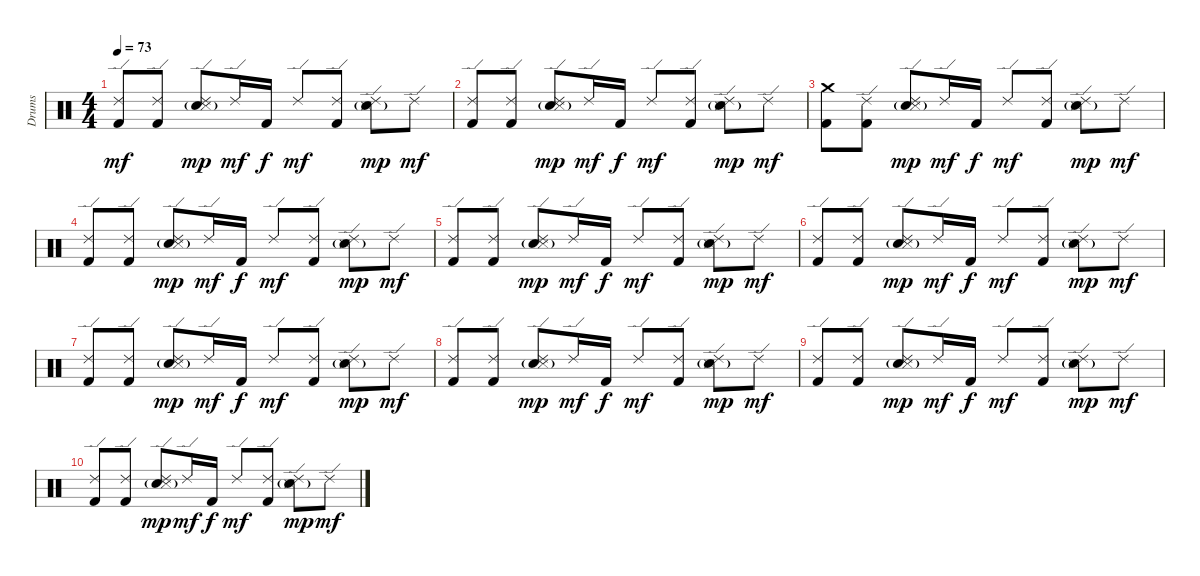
\track ("Drums" "Drums") {instrument percussion}
\staff {score}
\articulation defaults
\ts (4 4)
\tempo 73
\clef neutral
\ks c
("Ride (edge) 2" "Kick (hit) 2").8{dy mf} ("Ride (edge) 2" "Kick (hit) 2").8 ("Ride (edge) 2" "Snare (hit) 2"{g} "Snare (side stick) 3").8{dy mp} "Ride (edge) 2".16{dy mf} "Kick (hit) 2".16{dy f} "Ride (edge) 2".8{dy mf} ("Ride (edge) 2" "Kick (hit) 2").8 ("Ride (edge) 2" "Snare (hit) 2"{g} "Snare (side stick) 3").8{dy mp} "Ride (edge) 2".8{dy mf} |
("Ride (edge) 2" "Kick (hit) 2").8 ("Ride (edge) 2" "Kick (hit) 2").8 ("Ride (edge) 2" "Snare (hit) 2"{g} "Snare (side stick) 3").8{dy mp} "Ride (edge) 2".16{dy mf} "Kick (hit) 2".16{dy f} "Ride (edge) 2".8{dy mf} ("Ride (edge) 2" "Kick (hit) 2").8 ("Ride (edge) 2" "Snare (hit) 2"{g} "Snare (side stick) 3").8{dy mp} "Ride (edge) 2".8{dy mf} |
("Crash medium (hit)" "Kick (hit) 2").8{volume 5} ("Ride (edge) 2" "Kick (hit) 2").8 ("Ride (edge) 2" "Snare (hit) 2"{g} "Snare (side stick) 3").8{dy mp} "Ride (edge) 2".16{dy mf} "Kick (hit) 2".16{dy f} "Ride (edge) 2".8{dy mf} ("Ride (edge) 2" "Kick (hit) 2").8 ("Ride (edge) 2" "Snare (hit) 2"{g} "Snare (side stick) 3").8{dy mp} "Ride (edge) 2".8{dy mf} |
("Ride (edge) 2" "Kick (hit) 2").8 ("Ride (edge) 2" "Kick (hit) 2").8 ("Ride (edge) 2" "Snare (hit) 2"{g} "Snare (side stick) 3").8{dy mp} "Ride (edge) 2".16{dy mf} "Kick (hit) 2".16{dy f} "Ride (edge) 2".8{dy mf} ("Ride (edge) 2" "Kick (hit) 2").8 ("Ride (edge) 2" "Snare (hit) 2"{g} "Snare (side stick) 3").8{dy mp} "Ride (edge) 2".8{dy mf} |
("Ride (edge) 2" "Kick (hit) 2").8 ("Ride (edge) 2" "Kick (hit) 2").8 ("Ride (edge) 2" "Snare (hit) 2"{g} "Snare (side stick) 3").8{dy mp} "Ride (edge) 2".16{dy mf} "Kick (hit) 2".16{dy f} "Ride (edge) 2".8{dy mf} ("Ride (edge) 2" "Kick (hit) 2").8 ("Ride (edge) 2" "Snare (hit) 2"{g} "Snare (side stick) 3").8{dy mp} "Ride (edge) 2".8{dy mf} |
("Ride (edge) 2" "Kick (hit) 2").8 ("Ride (edge) 2" "Kick (hit) 2").8 ("Ride (edge) 2" "Snare (hit) 2"{g} "Snare (side stick) 3").8{dy mp} "Ride (edge) 2".16{dy mf} "Kick (hit) 2".16{dy f} "Ride (edge) 2".8{dy mf} ("Ride (edge) 2" "Kick (hit) 2").8 ("Ride (edge) 2" "Snare (hit) 2"{g} "Snare (side stick) 3").8{dy mp} "Ride (edge) 2".8{dy mf} |
("Ride (edge) 2" "Kick (hit) 2").8{volume 0} ("Ride (edge) 2" "Kick (hit) 2").8 ("Ride (edge) 2" "Snare (hit) 2"{g} "Snare (side stick) 3").8{dy mp} "Ride (edge) 2".16{dy mf} "Kick (hit) 2".16{dy f} "Ride (edge) 2".8{dy mf} ("Ride (edge) 2" "Kick (hit) 2").8 ("Ride (edge) 2" "Snare (hit) 2"{g} "Snare (side stick) 3").8{dy mp} "Ride (edge) 2".8{dy mf} |
("Ride (edge) 2" "Kick (hit) 2").8 ("Ride (edge) 2" "Kick (hit) 2").8 ("Ride (edge) 2" "Snare (hit) 2"{g} "Snare (side stick) 3").8{dy mp} "Ride (edge) 2".16{dy mf} "Kick (hit) 2".16{dy f} "Ride (edge) 2".8{dy mf} ("Ride (edge) 2" "Kick (hit) 2").8 ("Ride (edge) 2" "Snare (hit) 2"{g} "Snare (side stick) 3").8{dy mp} "Ride (edge) 2".8{dy mf} |
("Ride (edge) 2" "Kick (hit) 2").8 ("Ride (edge) 2" "Kick (hit) 2").8 ("Ride (edge) 2" "Snare (hit) 2"{g} "Snare (side stick) 3").8{dy mp} "Ride (edge) 2".16{dy mf} "Kick (hit) 2".16{dy f} "Ride (edge) 2".8{dy mf} ("Ride (edge) 2" "Kick (hit) 2").8 ("Ride (edge) 2" "Snare (hit) 2"{g} "Snare (side stick) 3").8{dy mp} "Ride (edge) 2".8{dy mf} |
("Ride (edge) 2" "Kick (hit) 2").8 ("Ride (edge) 2" "Kick (hit) 2").8 ("Ride (edge) 2" "Snare (hit) 2"{g} "Snare (side stick) 3").8{dy mp} "Ride (edge) 2".16{dy mf} "Kick (hit) 2".16{dy f} "Ride (edge) 2".8{dy mf} ("Ride (edge) 2" "Kick (hit) 2").8 ("Ride (edge) 2" "Snare (hit) 2"{g} "Snare (side stick) 3").8{dy mp} "Ride (edge) 2".8{dy mf}
